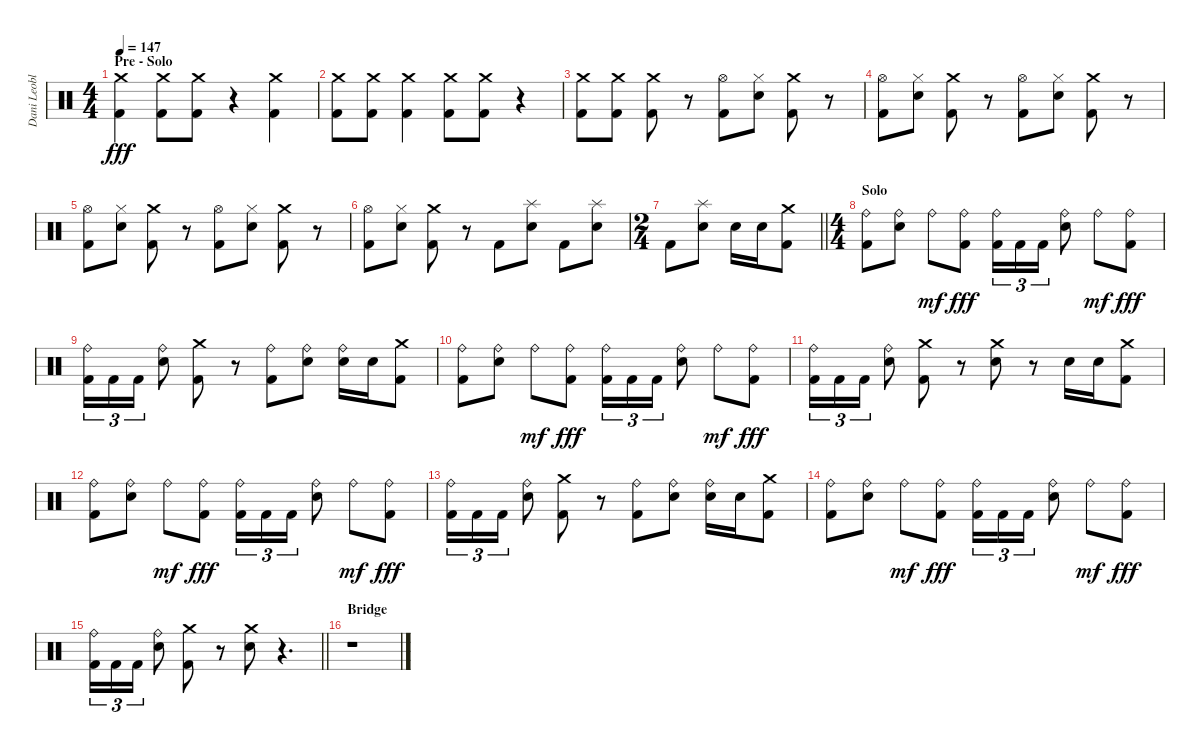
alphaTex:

\track ("Dani Leoble" "Dani Leobl") {instrument percussion}
\staff {score}
\articulation defaults
\ts (4 4)
\section ("" "Pre - Solo")
\tempo 147
\clef neutral
\ks c
("Crash medium (hit)" "Kick (hit) 2").4{dy fff} ("Crash medium (hit)" "Kick (hit) 2").8 ("Crash medium (hit)" "Kick (hit) 2").8 r.4 ("Crash medium (hit)" "Kick (hit) 2").4 |
("Crash medium (hit)" "Kick (hit) 2").8 ("Crash medium (hit)" "Kick (hit) 2").8 ("Crash medium (hit)" "Kick (hit) 2").4 ("Crash medium (hit)" "Kick (hit) 2").8 ("Crash medium (hit)" "Kick (hit) 2").8 r.4 |
("Crash medium (hit)" "Kick (hit) 2").8 ("Crash medium (hit)" "Kick (hit) 2").8 ("Crash medium (hit)" "Kick (hit) 2").8 r.8 ("Hi-Hat (open)" "Kick (hit) 2").8 ("Hi-Hat (closed)" "Electric Snare (hit)").8 ("Crash medium (hit)" "Kick (hit) 2").8 r.8 |
("Hi-Hat (open)" "Kick (hit) 2").8 ("Hi-Hat (closed)" "Electric Snare (hit)").8 ("Crash medium (hit)" "Kick (hit) 2").8 r.8 ("Hi-Hat (open)" "Kick (hit) 2").8 ("Hi-Hat (closed)" "Electric Snare (hit)").8 ("Crash medium (hit)" "Kick (hit) 2").8 r.8 |
("Hi-Hat (open)" "Kick (hit) 2").8 ("Hi-Hat (closed)" "Electric Snare (hit)").8 ("Crash medium (hit)" "Kick (hit) 2").8 r.8 ("Hi-Hat (open)" "Kick (hit) 2").8 ("Hi-Hat (closed)" "Electric Snare (hit)").8 ("Crash medium (hit)" "Kick (hit) 2").8 r.8 |
("Hi-Hat (open)" "Kick (hit) 2").8 ("Hi-Hat (closed)" "Electric Snare (hit)").8 ("Crash medium (hit)" "Kick (hit) 2").8 r.8 "Kick (hit) 2".8 ("Splash (hit)" "Electric Snare (hit)").8 "Kick (hit) 2".8 ("Splash (hit)" "Electric Snare (hit)").8 |
\ts (2 4)
\barLineRight lightlight "Kick (hit) 2".8
("Splash (hit)" "Electric Snare (hit)").8 "Electric Snare (hit)".16 "Electric Snare (hit)".16 ("Crash medium (hit)" "Kick (hit) 2").8 |
\ts (4 4)
\section ("" "Solo")
("Ride (bell)" "Kick (hit) 2").8 ("Ride (bell)" "Electric Snare (hit)").8 "Ride (bell)".8{dy mf} ("Ride (bell)" "Kick (hit) 2").8{dy fff} ("Ride (bell)" "Kick (hit) 2").16{tu (3 2)} "Kick (hit) 2".16{tu (3 2)} "Kick (hit) 2".16{tu (3 2)} ("Ride (bell)" "Electric Snare (hit)").8 "Ride (bell)".8{dy mf} ("Ride (bell)" "Kick (hit) 2").8{dy fff} |
("Ride (bell)" "Kick (hit) 2").16{tu (3 2)} "Kick (hit) 2".16{tu (3 2)} "Kick (hit) 2".16{tu (3 2)} ("Ride (bell)" "Electric Snare (hit)").8 ("Crash medium (hit)" "Kick (hit) 2").8 r.8 ("Ride (bell)" "Kick (hit) 2").8 ("Ride (bell)" "Electric Snare (hit)").8 ("Ride (bell)" "Electric Snare (hit)").16 "Electric Snare (hit)".16 ("Crash medium (hit)" "Kick (hit) 2").8 |
("Ride (bell)" "Kick (hit) 2").8 ("Ride (bell)" "Electric Snare (hit)").8 "Ride (bell)".8{dy mf} ("Ride (bell)" "Kick (hit) 2").8{dy fff} ("Ride (bell)" "Kick (hit) 2").16{tu (3 2)} "Kick (hit) 2".16{tu (3 2)} "Kick (hit) 2".16{tu (3 2)} ("Ride (bell)" "Electric Snare (hit)").8 "Ride (bell)".8{dy mf} ("Ride (bell)" "Kick (hit) 2").8{dy fff} |
("Ride (bell)" "Kick (hit) 2").16{tu (3 2)} "Kick (hit) 2".16{tu (3 2)} "Kick (hit) 2".16{tu (3 2)} ("Ride (bell)" "Electric Snare (hit)").8 ("Crash medium (hit)" "Kick (hit) 2").8 r.8 ("Crash medium (hit)" "Electric Snare (hit)").8 r.8 "Electric Snare (hit)".16 "Electric Snare (hit)".16 ("Crash medium (hit)" "Kick (hit) 2").8 |
("Ride (bell)" "Kick (hit) 2").8 ("Ride (bell)" "Electric Snare (hit)").8 "Ride (bell)".8{dy mf} ("Ride (bell)" "Kick (hit) 2").8{dy fff} ("Ride (bell)" "Kick (hit) 2").16{tu (3 2)} "Kick (hit) 2".16{tu (3 2)} "Kick (hit) 2".16{tu (3 2)} ("Ride (bell)" "Electric Snare (hit)").8 "Ride (bell)".8{dy mf} ("Ride (bell)" "Kick (hit) 2").8{dy fff} |
("Ride (bell)" "Kick (hit) 2").16{tu (3 2)} "Kick (hit) 2".16{tu (3 2)} "Kick (hit) 2".16{tu (3 2)} ("Ride (bell)" "Electric Snare (hit)").8 ("Crash medium (hit)" "Kick (hit) 2").8 r.8 ("Ride (bell)" "Kick (hit) 2").8 ("Ride (bell)" "Electric Snare (hit)").8 ("Ride (bell)" "Electric Snare (hit)").16 "Electric Snare (hit)".16 ("Crash medium (hit)" "Kick (hit) 2").8 |
("Ride (bell)" "Kick (hit) 2").8 ("Ride (bell)" "Electric Snare (hit)").8 "Ride (bell)".8{dy mf} ("Ride (bell)" "Kick (hit) 2").8{dy fff} ("Ride (bell)" "Kick (hit) 2").16{tu (3 2)} "Kick (hit) 2".16{tu (3 2)} "Kick (hit) 2".16{tu (3 2)} ("Ride (bell)" "Electric Snare (hit)").8 "Ride (bell)".8{dy mf} ("Ride (bell)" "Kick (hit) 2").8{dy fff} |
\barLineRight lightlight
("Ride (bell)" "Kick (hit) 2").16{tu (3 2)} "Kick (hit) 2".16{tu (3 2)} "Kick (hit) 2".16{tu (3 2)} ("Ride (bell)" "Electric Snare (hit)").8 ("Crash medium (hit)" "Kick (hit) 2").8 r.8 ("Crash medium (hit)" "Electric Snare (hit)").8 r.4{d} |
\section ("" "Bridge")
r.1
